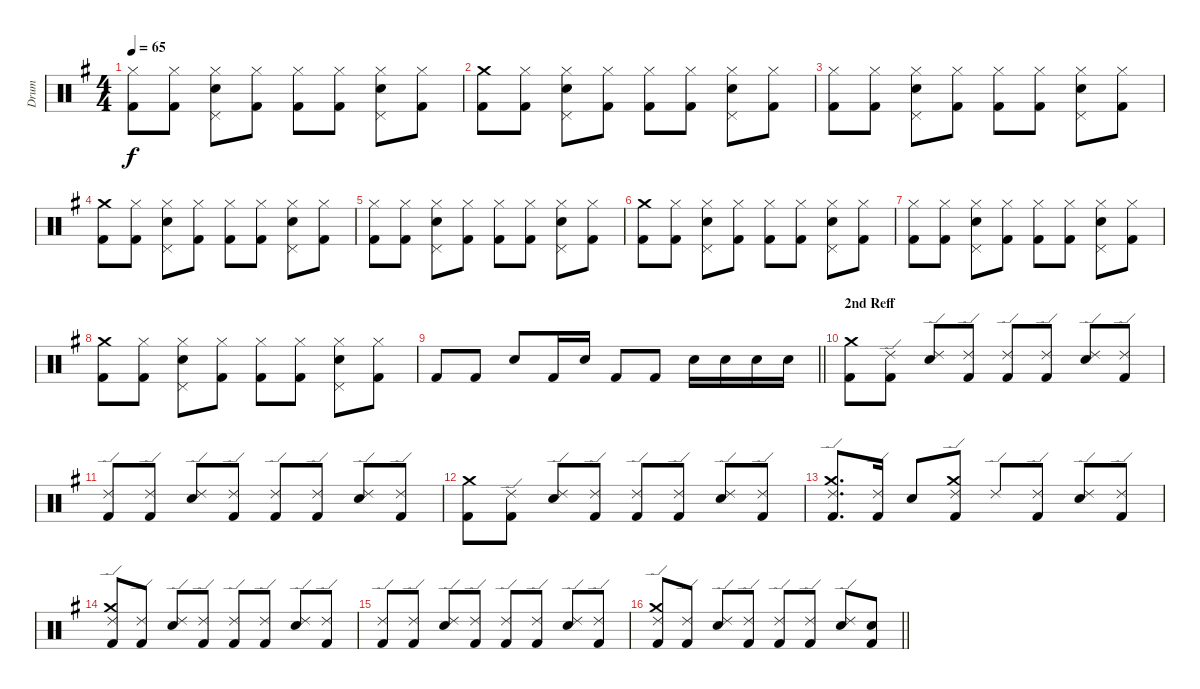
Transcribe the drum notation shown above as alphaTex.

\track ("Drum" "Drum") {instrument percussion}
\staff {score}
\articulation defaults
\ts (4 4)
\tempo 65
\clef neutral
\ks g
("Hi-Hat (closed)" "Kick (hit) 2").8{dy f} ("Hi-Hat (closed)" "Kick (hit) 2").8 ("Pedal Hi-Hat (hit)" "Hi-Hat (closed)" "Electric Snare (hit)").8 ("Hi-Hat (closed)" "Kick (hit) 2").8 ("Hi-Hat (closed)" "Kick (hit) 2").8 ("Hi-Hat (closed)" "Kick (hit) 2").8 ("Pedal Hi-Hat (hit)" "Hi-Hat (closed)" "Electric Snare (hit)").8 ("Hi-Hat (closed)" "Kick (hit) 2").8 |
("Crash medium (hit)" "Kick (hit) 2").8 ("Hi-Hat (closed)" "Kick (hit) 2").8 ("Pedal Hi-Hat (hit)" "Hi-Hat (closed)" "Electric Snare (hit)").8 ("Hi-Hat (closed)" "Kick (hit) 2").8 ("Hi-Hat (closed)" "Kick (hit) 2").8 ("Hi-Hat (closed)" "Kick (hit) 2").8 ("Pedal Hi-Hat (hit)" "Hi-Hat (closed)" "Electric Snare (hit)").8 ("Hi-Hat (closed)" "Kick (hit) 2").8 |
("Hi-Hat (closed)" "Kick (hit) 2").8 ("Hi-Hat (closed)" "Kick (hit) 2").8 ("Pedal Hi-Hat (hit)" "Hi-Hat (closed)" "Electric Snare (hit)").8 ("Hi-Hat (closed)" "Kick (hit) 2").8 ("Hi-Hat (closed)" "Kick (hit) 2").8 ("Hi-Hat (closed)" "Kick (hit) 2").8 ("Pedal Hi-Hat (hit)" "Hi-Hat (closed)" "Electric Snare (hit)").8 ("Hi-Hat (closed)" "Kick (hit) 2").8 |
("Crash medium (hit)" "Kick (hit) 2").8 ("Hi-Hat (closed)" "Kick (hit) 2").8 ("Pedal Hi-Hat (hit)" "Hi-Hat (closed)" "Electric Snare (hit)").8 ("Hi-Hat (closed)" "Kick (hit) 2").8 ("Hi-Hat (closed)" "Kick (hit) 2").8 ("Hi-Hat (closed)" "Kick (hit) 2").8 ("Pedal Hi-Hat (hit)" "Hi-Hat (closed)" "Electric Snare (hit)").8 ("Hi-Hat (closed)" "Kick (hit) 2").8 |
("Hi-Hat (closed)" "Kick (hit) 2").8 ("Hi-Hat (closed)" "Kick (hit) 2").8 ("Pedal Hi-Hat (hit)" "Hi-Hat (closed)" "Electric Snare (hit)").8 ("Hi-Hat (closed)" "Kick (hit) 2").8 ("Hi-Hat (closed)" "Kick (hit) 2").8 ("Hi-Hat (closed)" "Kick (hit) 2").8 ("Pedal Hi-Hat (hit)" "Hi-Hat (closed)" "Electric Snare (hit)").8 ("Hi-Hat (closed)" "Kick (hit) 2").8 |
("Crash medium (hit)" "Kick (hit) 2").8 ("Hi-Hat (closed)" "Kick (hit) 2").8 ("Pedal Hi-Hat (hit)" "Hi-Hat (closed)" "Electric Snare (hit)").8 ("Hi-Hat (closed)" "Kick (hit) 2").8 ("Hi-Hat (closed)" "Kick (hit) 2").8 ("Hi-Hat (closed)" "Kick (hit) 2").8 ("Pedal Hi-Hat (hit)" "Hi-Hat (closed)" "Electric Snare (hit)").8 ("Hi-Hat (closed)" "Kick (hit) 2").8 |
("Hi-Hat (closed)" "Kick (hit) 2").8 ("Hi-Hat (closed)" "Kick (hit) 2").8 ("Pedal Hi-Hat (hit)" "Hi-Hat (closed)" "Electric Snare (hit)").8 ("Hi-Hat (closed)" "Kick (hit) 2").8 ("Hi-Hat (closed)" "Kick (hit) 2").8 ("Hi-Hat (closed)" "Kick (hit) 2").8 ("Pedal Hi-Hat (hit)" "Hi-Hat (closed)" "Electric Snare (hit)").8 ("Hi-Hat (closed)" "Kick (hit) 2").8 |
("Crash medium (hit)" "Kick (hit) 2").8 ("Hi-Hat (closed)" "Kick (hit) 2").8 ("Pedal Hi-Hat (hit)" "Hi-Hat (closed)" "Electric Snare (hit)").8 ("Hi-Hat (closed)" "Kick (hit) 2").8 ("Hi-Hat (closed)" "Kick (hit) 2").8 ("Hi-Hat (closed)" "Kick (hit) 2").8 ("Pedal Hi-Hat (hit)" "Hi-Hat (closed)" "Electric Snare (hit)").8 ("Hi-Hat (closed)" "Kick (hit) 2").8 |
\barLineRight lightlight "Kick (hit) 2".8 "Kick (hit) 2".8 "Electric Snare (hit)".8 "Kick (hit) 2".16 "Electric Snare (hit)".16 "Kick (hit) 2".8 "Kick (hit) 2".8 "Electric Snare (hit)".16 "Electric Snare (hit)".16 "Electric Snare (hit)".16 "Electric Snare (hit)".16
|
\section ("" "2nd Reff")
("Crash medium (hit)" "Kick (hit) 2").8 ("Ride (edge) 2" "Kick (hit) 2").8 ("Ride (edge) 2" "Electric Snare (hit)").8 ("Ride (edge) 2" "Kick (hit) 2").8 ("Ride (edge) 2" "Kick (hit) 2").8 ("Ride (edge) 2" "Kick (hit) 2").8 ("Ride (edge) 2" "Electric Snare (hit)").8 ("Ride (edge) 2" "Kick (hit) 2").8 |
("Ride (edge) 2" "Kick (hit) 2").8 ("Ride (edge) 2" "Kick (hit) 2").8 ("Ride (edge) 2" "Electric Snare (hit)").8 ("Ride (edge) 2" "Kick (hit) 2").8 ("Ride (edge) 2" "Kick (hit) 2").8 ("Ride (edge) 2" "Kick (hit) 2").8 ("Ride (edge) 2" "Electric Snare (hit)").8 ("Ride (edge) 2" "Kick (hit) 2").8 |
("Crash medium (hit)" "Kick (hit) 2").8 ("Ride (edge) 2" "Kick (hit) 2").8 ("Ride (edge) 2" "Electric Snare (hit)").8 ("Ride (edge) 2" "Kick (hit) 2").8 ("Ride (edge) 2" "Kick (hit) 2").8 ("Ride (edge) 2" "Kick (hit) 2").8 ("Ride (edge) 2" "Electric Snare (hit)").8 ("Ride (edge) 2" "Kick (hit) 2").8 |
("Crash medium (hit)" "Ride (edge) 2" "Kick (hit) 2").8{d} ("Ride (edge) 2" "Kick (hit) 2").16 "Electric Snare (hit)".8 ("Crash medium (hit)" "Ride (edge) 2" "Kick (hit) 2").8 "Ride (edge) 2".8 ("Ride (edge) 2" "Kick (hit) 2").8 ("Ride (edge) 2" "Electric Snare (hit)").8 ("Ride (edge) 2" "Kick (hit) 2").8 |
("Crash medium (hit)" "Ride (edge) 2" "Kick (hit) 2").8 ("Ride (edge) 2" "Kick (hit) 2").8 ("Ride (edge) 2" "Electric Snare (hit)").8 ("Ride (edge) 2" "Kick (hit) 2").8 ("Ride (edge) 2" "Kick (hit) 2").8 ("Ride (edge) 2" "Kick (hit) 2").8 ("Ride (edge) 2" "Electric Snare (hit)").8 ("Ride (edge) 2" "Kick (hit) 2").8 |
("Ride (edge) 2" "Kick (hit) 2").8 ("Ride (edge) 2" "Kick (hit) 2").8 ("Ride (edge) 2" "Electric Snare (hit)").8 ("Ride (edge) 2" "Kick (hit) 2").8 ("Ride (edge) 2" "Kick (hit) 2").8 ("Ride (edge) 2" "Kick (hit) 2").8 ("Ride (edge) 2" "Electric Snare (hit)").8 ("Ride (edge) 2" "Kick (hit) 2").8 |
\barLineRight lightlight
("Crash medium (hit)" "Ride (edge) 2" "Kick (hit) 2").8 ("Ride (edge) 2" "Kick (hit) 2").8 ("Ride (edge) 2" "Electric Snare (hit)").8 ("Ride (edge) 2" "Kick (hit) 2").8 ("Ride (edge) 2" "Kick (hit) 2").8 ("Ride (edge) 2" "Kick (hit) 2").8 ("Ride (edge) 2" "Electric Snare (hit)").8 ("Snare (hit)" "Kick (hit) 2").8
